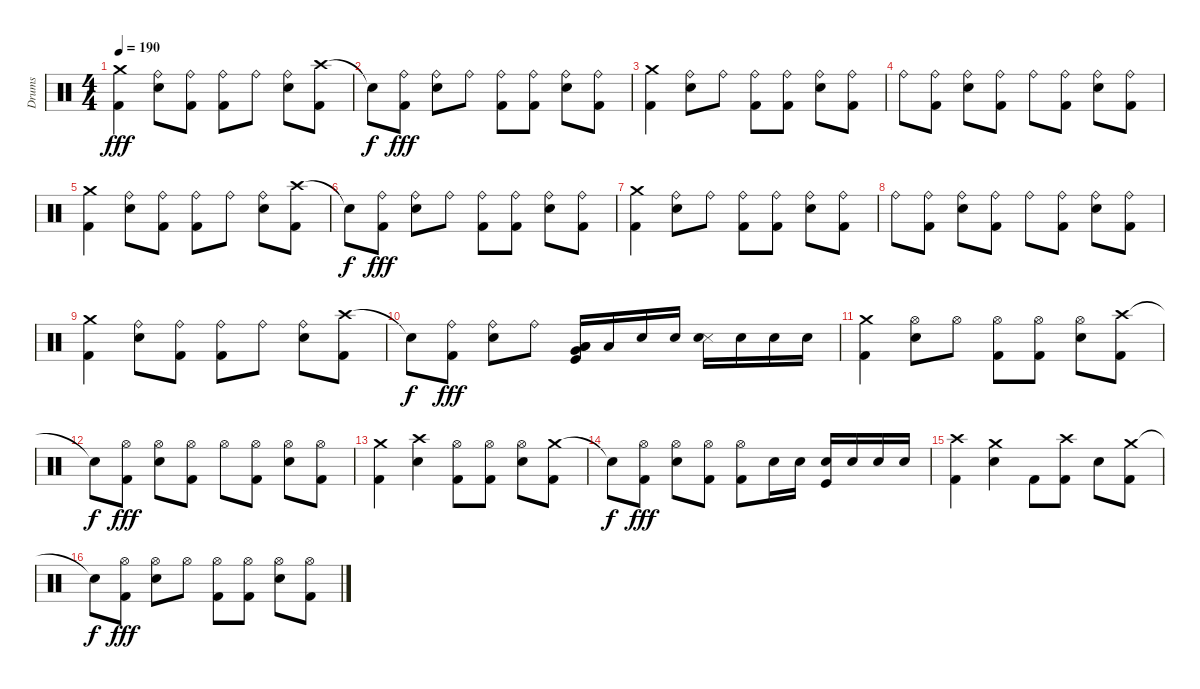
\track ("Drums" "Drums") {instrument percussion}
\staff {score}
\articulation defaults
\ts (4 4)
\tempo 190
\clef neutral
\ks c
("Kick (hit) 2" "Crash medium (hit)").4{dy fff} ("Ride (bell)" "Electric Snare (hit)").8 ("Kick (hit) 2" "Ride (bell)").8 ("Kick (hit) 2" "Ride (bell)").8 "Ride (bell)".8 ("Electric Snare (hit)" "Ride (bell)").8 ("Crash high (hit)" "Kick (hit) 2").8 |
"Snare (hit)"{t}.8{dy f} ("Kick (hit) 2" "Ride (bell)").8{dy fff} ("Ride (bell)" "Electric Snare (hit)").8 "Ride (bell)".8 ("Kick (hit) 2" "Ride (bell)").8 ("Ride (bell)" "Kick (hit) 2").8 ("Ride (bell)" "Electric Snare (hit)").8 ("Kick (hit) 2" "Ride (bell)").8 |
("Crash medium (hit)" "Kick (hit) 2").4 ("Electric Snare (hit)" "Ride (bell)").8 "Ride (bell)".8 ("Kick (hit) 2" "Ride (bell)").8 ("Kick (hit) 2" "Ride (bell)").8 ("Ride (bell)" "Electric Snare (hit)").8 ("Ride (bell)" "Kick (hit) 2").8 |
"Ride (bell)".8 ("Ride (bell)" "Kick (hit) 2").8 ("Ride (bell)" "Electric Snare (hit)").8 ("Kick (hit) 2" "Ride (bell)").8 "Ride (bell)".8 ("Ride (bell)" "Kick (hit) 2").8 ("Electric Snare (hit)" "Ride (bell)").8 ("Ride (bell)" "Kick (hit) 2").8 |
("Crash medium (hit)" "Kick (hit) 2").4 ("Ride (bell)" "Electric Snare (hit)").8 ("Ride (bell)" "Kick (hit) 2").8 ("Kick (hit) 2" "Ride (bell)").8 "Ride (bell)".8 ("Ride (bell)" "Electric Snare (hit)").8 ("Crash high (hit)" "Kick (hit) 2").8 |
"Snare (hit)"{t}.8{dy f} ("Ride (bell)" "Kick (hit) 2").8{dy fff} ("Electric Snare (hit)" "Ride (bell)").8 "Ride (bell)".8 ("Ride (bell)" "Kick (hit) 2").8 ("Kick (hit) 2" "Ride (bell)").8 ("Ride (bell)" "Electric Snare (hit)").8 ("Ride (bell)" "Kick (hit) 2").8 |
("Kick (hit) 2" "Crash medium (hit)").4 ("Ride (bell)" "Electric Snare (hit)").8 "Ride (bell)".8 ("Kick (hit) 2" "Ride (bell)").8 ("Ride (bell)" "Kick (hit) 2").8 ("Ride (bell)" "Electric Snare (hit)").8 ("Kick (hit) 2" "Ride (bell)").8 |
"Ride (bell)".8 ("Ride (bell)" "Kick (hit) 2").8 ("Electric Snare (hit)" "Ride (bell)").8 ("Kick (hit) 2" "Ride (bell)").8 "Ride (bell)".8 ("Kick (hit) 2" "Ride (bell)").8 ("Electric Snare (hit)" "Ride (bell)").8 ("Kick (hit) 2" "Ride (bell)").8 |
("Kick (hit) 2" "Crash medium (hit)").4 ("Ride (bell)" "Electric Snare (hit)").8 ("Kick (hit) 2" "Ride (bell)").8 ("Kick (hit) 2" "Ride (bell)").8 "Ride (bell)".8 ("Electric Snare (hit)" "Ride (bell)").8 ("Crash high (hit)" "Kick (hit) 2").8 |
"Snare (hit)"{t}.8{dy f} ("Kick (hit) 2" "Ride (bell)").8{dy fff} ("Ride (bell)" "Electric Snare (hit)").8 "Ride (bell)".8 ("Very Low Tom (hit)" "Kick (hit)" "Low Floor Tom (hit)" "Low Tom (hit)").16 "Low Tom (hit)".16 "Electric Snare (hit)".16 "Electric Snare (hit)".16 ("Metronome (hit)" "Electric Snare (hit)").16 "Electric Snare (hit)".16 "Electric Snare (hit)".16 "Electric Snare (hit)".16 |
("Crash medium (hit)" "Kick (hit) 2").4 ("Hi-Hat (open)" "Electric Snare (hit)").8 "Hi-Hat (open)".8 ("Hi-Hat (open)" "Kick (hit) 2").8 ("Hi-Hat (open)" "Kick (hit) 2").8 ("Electric Snare (hit)" "Hi-Hat (open)").8 ("Crash high (hit)" "Kick (hit) 2").8 |
"Snare (hit)"{t}.8{dy f} ("Kick (hit) 2" "Hi-Hat (open)").8{dy fff} ("Hi-Hat (open)" "Electric Snare (hit)").8 ("Hi-Hat (open)" "Kick (hit) 2").8 "Hi-Hat (open)".8 ("Hi-Hat (open)" "Kick (hit) 2").8 ("Hi-Hat (open)" "Electric Snare (hit)").8 ("Hi-Hat (open)" "Kick (hit) 2").8 |
("Crash medium (hit)" "Kick (hit) 2").4 ("Crash high (hit)" "Electric Snare (hit)").4 ("Kick (hit) 2" "Hi-Hat (open)").8 ("Kick (hit) 2" "Hi-Hat (open)").8 ("Electric Snare (hit)" "Hi-Hat (open)").8 ("Crash medium (hit)" "Kick (hit) 2").8 |
"Snare (hit)"{t}.8{dy f} ("Hi-Hat (open)" "Kick (hit) 2").8{dy fff} ("Electric Snare (hit)" "Hi-Hat (open)").8 ("Kick (hit) 2" "Hi-Hat (open)").8 ("Hi-Hat (open)" "Kick (hit) 2").8 "Electric Snare (hit)".16 "Electric Snare (hit)".16 ("Kick (hit)" "Electric Snare (hit)").16 "Electric Snare (hit)".16 "Electric Snare (hit)".16 "Electric Snare (hit)".16 |
("Kick (hit) 2" "Crash high (hit)").4 ("Crash medium (hit)" "Electric Snare (hit)").4 "Kick (hit) 2".8 ("Crash high (hit)" "Kick (hit) 2").8 "Electric Snare (hit)".8 ("Crash medium (hit)" "Kick (hit) 2").8 |
"Snare (hit)"{t}.8{dy f} ("Hi-Hat (open)" "Kick (hit) 2").8{dy fff} ("Electric Snare (hit)" "Hi-Hat (open)").8 "Hi-Hat (open)".8 ("Hi-Hat (open)" "Kick (hit) 2").8 ("Kick (hit) 2" "Hi-Hat (open)").8 ("Hi-Hat (open)" "Electric Snare (hit)").8 ("Hi-Hat (open)" "Kick (hit) 2").8
